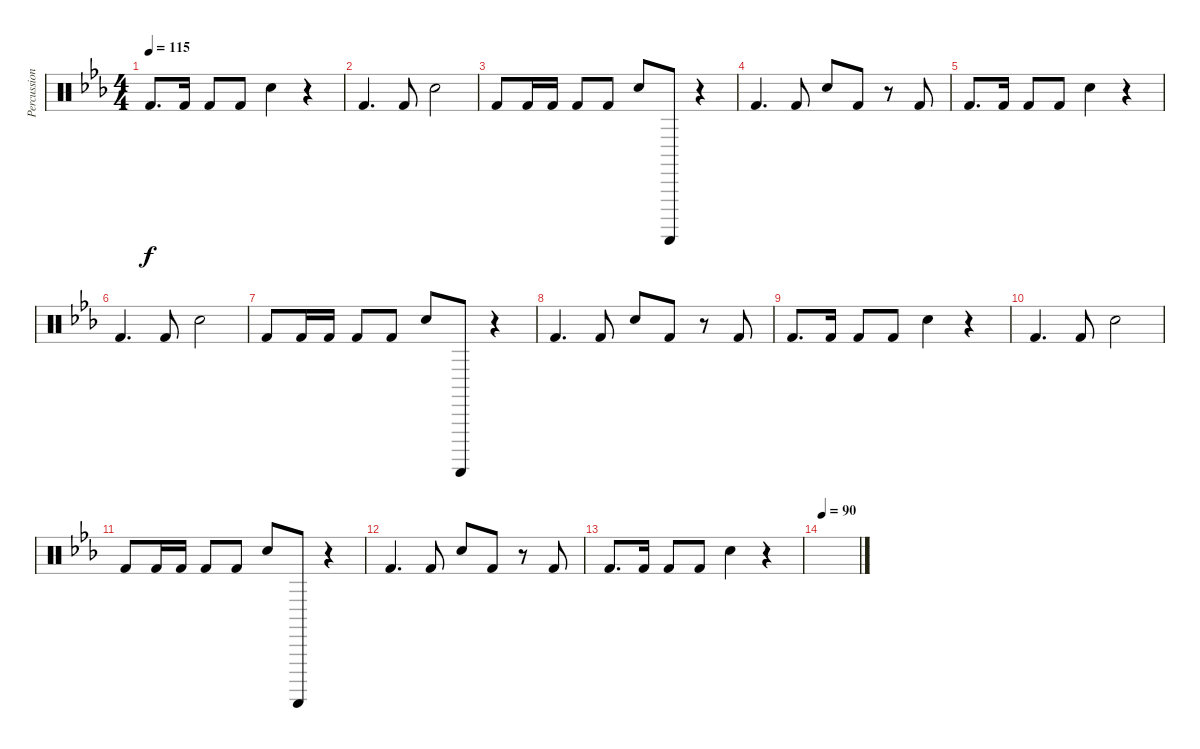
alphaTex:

\track ("Percussions" "Percussion") {instrument percussion}
\staff {score}
\articulation defaults
\ts (4 4)
\tempo 115
\clef neutral
\ks eb "Kick (hit) 2".8{d dy f} "Kick (hit) 2".16 "Kick (hit) 2".8 "Kick (hit) 2".8 "Hand Clap (hit)".4
r.4 |
"Kick (hit) 2".4{d} "Kick (hit) 2".8 "Hand Clap (hit)".2 |
"Kick (hit) 2".8 "Kick (hit) 2".16 "Kick (hit) 2".16 "Kick (hit) 2".8 "Kick (hit) 2".8 "Hand Clap (hit)".8 "Guiro (scrap-return)".8 r.4 |
"Kick (hit) 2".4{d} "Kick (hit) 2".8 "Hand Clap (hit)".8 "Kick (hit) 2".8 r.8 "Kick (hit) 2".8 |
"Kick (hit) 2".8{d} "Kick (hit) 2".16 "Kick (hit) 2".8 "Kick (hit) 2".8 "Hand Clap (hit)".4 r.4 |
"Kick (hit) 2".4{d} "Kick (hit) 2".8 "Hand Clap (hit)".2 |
"Kick (hit) 2".8 "Kick (hit) 2".16 "Kick (hit) 2".16 "Kick (hit) 2".8 "Kick (hit) 2".8 "Hand Clap (hit)".8 "Guiro (scrap-return)".8 r.4 |
"Kick (hit) 2".4{d} "Kick (hit) 2".8 "Hand Clap (hit)".8 "Kick (hit) 2".8 r.8 "Kick (hit) 2".8 |
"Kick (hit) 2".8{d} "Kick (hit) 2".16 "Kick (hit) 2".8 "Kick (hit) 2".8 "Hand Clap (hit)".4 r.4 |
"Kick (hit) 2".4{d} "Kick (hit) 2".8 "Hand Clap (hit)".2 |
"Kick (hit) 2".8 "Kick (hit) 2".16 "Kick (hit) 2".16 "Kick (hit) 2".8 "Kick (hit) 2".8 "Hand Clap (hit)".8 "Guiro (scrap-return)".8 r.4 |
"Kick (hit) 2".4{d} "Kick (hit) 2".8 "Hand Clap (hit)".8 "Kick (hit) 2".8 r.8 "Kick (hit) 2".8 |
"Kick (hit) 2".8{d} "Kick (hit) 2".16 "Kick (hit) 2".8 "Kick (hit) 2".8 "Hand Clap (hit)".4 r.4 |
\tempo 90
